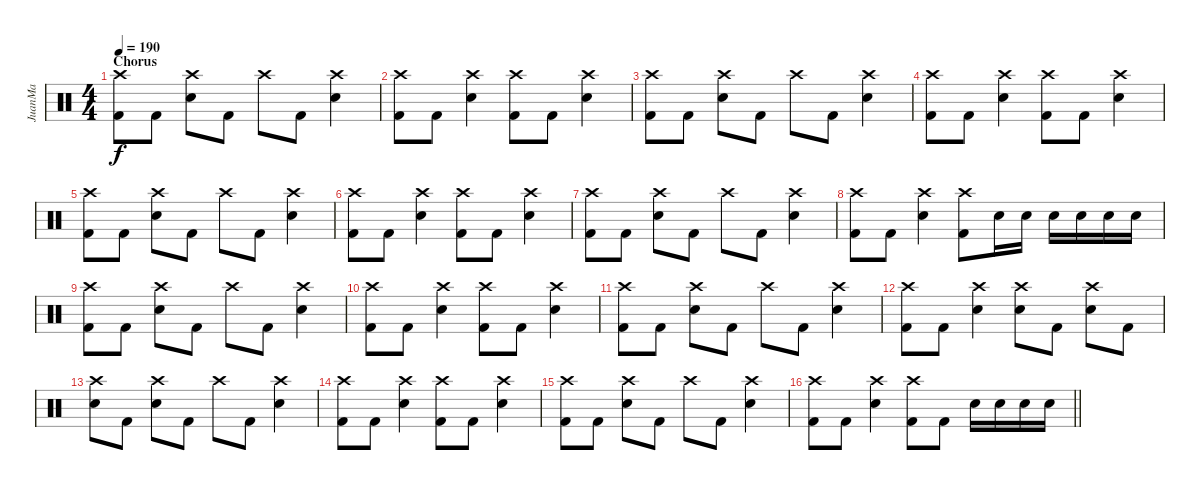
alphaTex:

\track ("JuanMa" "JuanMa") {instrument percussion}
\staff {score}
\articulation defaults
\ts (4 4)
\section ("" "Chorus")
\tempo 190
\clef neutral
\ks c
("Crash high (hit)" "Kick (hit) 2").8{dy f} "Kick (hit) 2".8 ("Crash high (hit)" "Electric Snare (hit)").8 "Kick (hit) 2".8 "Crash high (hit)".8 "Kick (hit) 2".8 ("Crash high (hit)" "Electric Snare (hit)").4 |
("Crash high (hit)" "Kick (hit) 2").8 "Kick (hit) 2".8 ("Crash high (hit)" "Electric Snare (hit)").4 ("Crash high (hit)" "Kick (hit) 2").8 "Kick (hit) 2".8 ("Crash high (hit)" "Electric Snare (hit)").4 |
("Crash high (hit)" "Kick (hit) 2").8 "Kick (hit) 2".8 ("Crash high (hit)" "Electric Snare (hit)").8 "Kick (hit) 2".8 "Crash high (hit)".8 "Kick (hit) 2".8 ("Crash high (hit)" "Electric Snare (hit)").4 |
("Crash high (hit)" "Kick (hit) 2").8 "Kick (hit) 2".8 ("Crash high (hit)" "Electric Snare (hit)").4 ("Crash high (hit)" "Kick (hit) 2").8 "Kick (hit) 2".8 ("Crash high (hit)" "Electric Snare (hit)").4 |
("Crash high (hit)" "Kick (hit) 2").8 "Kick (hit) 2".8 ("Crash high (hit)" "Electric Snare (hit)").8 "Kick (hit) 2".8 "Crash high (hit)".8 "Kick (hit) 2".8 ("Crash high (hit)" "Electric Snare (hit)").4 |
("Crash high (hit)" "Kick (hit) 2").8 "Kick (hit) 2".8 ("Crash high (hit)" "Electric Snare (hit)").4 ("Crash high (hit)" "Kick (hit) 2").8 "Kick (hit) 2".8 ("Crash high (hit)" "Electric Snare (hit)").4 |
("Crash high (hit)" "Kick (hit) 2").8 "Kick (hit) 2".8 ("Crash high (hit)" "Electric Snare (hit)").8 "Kick (hit) 2".8 "Crash high (hit)".8 "Kick (hit) 2".8 ("Crash high (hit)" "Electric Snare (hit)").4 |
("Crash high (hit)" "Kick (hit) 2").8 "Kick (hit) 2".8 ("Crash high (hit)" "Electric Snare (hit)").4 ("Crash high (hit)" "Kick (hit) 2").8 "Electric Snare (hit)".16 "Electric Snare (hit)".16 "Electric Snare (hit)".16 "Electric Snare (hit)".16 "Electric Snare (hit)".16 "Electric Snare (hit)".16 |
("Crash high (hit)" "Kick (hit) 2").8 "Kick (hit) 2".8 ("Crash high (hit)" "Electric Snare (hit)").8 "Kick (hit) 2".8 "Crash high (hit)".8 "Kick (hit) 2".8 ("Crash high (hit)" "Electric Snare (hit)").4 |
("Crash high (hit)" "Kick (hit) 2").8 "Kick (hit) 2".8 ("Crash high (hit)" "Electric Snare (hit)").4 ("Crash high (hit)" "Kick (hit) 2").8 "Kick (hit) 2".8 ("Crash high (hit)" "Electric Snare (hit)").4 |
("Crash high (hit)" "Kick (hit) 2").8 "Kick (hit) 2".8 ("Crash high (hit)" "Electric Snare (hit)").8 "Kick (hit) 2".8 "Crash high (hit)".8 "Kick (hit) 2".8 ("Crash high (hit)" "Electric Snare (hit)").4 |
("Crash high (hit)" "Kick (hit) 2").8 "Kick (hit) 2".8 ("Crash high (hit)" "Electric Snare (hit)").4 ("Crash high (hit)" "Electric Snare (hit)").8 "Kick (hit) 2".8 ("Crash high (hit)" "Electric Snare (hit)").8 "Kick (hit) 2".8 |
("Crash high (hit)" "Electric Snare (hit)").8 "Kick (hit) 2".8 ("Crash high (hit)" "Electric Snare (hit)").8 "Kick (hit) 2".8 "Crash high (hit)".8 "Kick (hit) 2".8 ("Crash high (hit)" "Electric Snare (hit)").4 |
("Crash high (hit)" "Kick (hit) 2").8 "Kick (hit) 2".8 ("Crash high (hit)" "Electric Snare (hit)").4 ("Crash high (hit)" "Kick (hit) 2").8 "Kick (hit) 2".8 ("Crash high (hit)" "Electric Snare (hit)").4 |
("Crash high (hit)" "Kick (hit) 2").8 "Kick (hit) 2".8 ("Crash high (hit)" "Electric Snare (hit)").8 "Kick (hit) 2".8 "Crash high (hit)".8 "Kick (hit) 2".8 ("Crash high (hit)" "Electric Snare (hit)").4 |
\barLineRight lightlight
("Crash high (hit)" "Kick (hit) 2").8 "Kick (hit) 2".8 ("Crash high (hit)" "Electric Snare (hit)").4 ("Crash high (hit)" "Kick (hit) 2").8 "Kick (hit) 2".8 "Electric Snare (hit)".16 "Electric Snare (hit)".16 "Electric Snare (hit)".16 "Electric Snare (hit)".16
